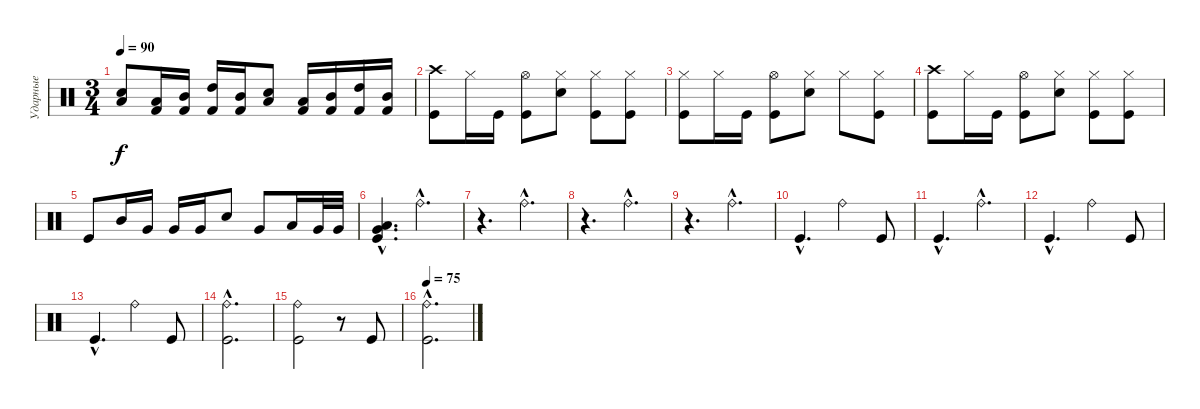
\track ("Ударные" "Ударные") {instrument percussion}
\staff {score}
\articulation defaults
\ts (3 4)
\tempo 90
\clef neutral
\ks c
("Low Floor Tom (hit)" "Electric Snare (hit)").8{dy f} ("Low Tom (hit)" "Kick (hit) 2").16 ("Mid Tom (hit)" "Kick (hit) 2").16 ("High Tom (hit)" "Kick (hit) 2").16 ("Mid Tom (hit)" "Kick (hit) 2").16 ("Low Floor Tom (hit)" "Electric Snare (hit)").8 ("Low Tom (hit)" "Kick (hit) 2").16 ("Mid Tom (hit)" "Kick (hit) 2").16 ("High Tom (hit)" "Kick (hit) 2").16 ("Mid Tom (hit)" "Kick (hit) 2").16 |
("Crash high (hit)" "Kick (hit)").8 "Hi-Hat (closed)".16 "Kick (hit)".16 ("Hi-Hat (open)" "Kick (hit)").8 ("Hi-Hat (closed)" "Electric Snare (hit)").8 ("Hi-Hat (closed)" "Kick (hit)").8 ("Hi-Hat (closed)" "Kick (hit)").8 |
("Hi-Hat (closed)" "Kick (hit)").8 "Hi-Hat (closed)".16 "Kick (hit)".16 ("Hi-Hat (open)" "Kick (hit)").8 ("Hi-Hat (closed)" "Electric Snare (hit)").8 "Hi-Hat (closed)".8 ("Hi-Hat (closed)" "Kick (hit)").8 |
("Crash high (hit)" "Kick (hit)").8 "Hi-Hat (closed)".16 "Kick (hit)".16 ("Hi-Hat (open)" "Kick (hit)").8 ("Hi-Hat (closed)" "Electric Snare (hit)").8 ("Hi-Hat (closed)" "Kick (hit)").8 ("Hi-Hat (closed)" "Kick (hit)").8 |
"Kick (hit)".8 "Mid Tom (hit)".16 "Very Low Tom (hit)".16 "Very Low Tom (hit)".16 "Very Low Tom (hit)".16 "Electric Snare (hit)".8 "Very Low Tom (hit)".8 "Low Tom (hit)".16 "Very Low Tom (hit)".32 "Very Low Tom (hit)".32 |
("Very Low Tom (hit)"{hac} "Low Tom (hit)"{hac} "Kick (hit)"{hac}).4{d} "Ride (bell)"{hac}.4{d} |
r.4{d} "Ride (bell)"{hac}.4{d} |
r.4{d} "Ride (bell)"{hac}.4{d} |
r.4{d} "Ride (bell)"{hac}.4{d} |
"Kick (hit)"{hac}.4{d} "Ride (bell)".4 "Kick (hit)".8 |
"Kick (hit)"{hac}.4{d} "Ride (bell)"{hac}.4{d} |
"Kick (hit)"{hac}.4{d} "Ride (bell)".4 "Kick (hit)".8 |
"Kick (hit)"{hac}.4{d} "Ride (bell)".4 "Kick (hit)".8 |
("Ride (bell)"{hac} "Kick (hit)"{hac}).2{d} |
("Ride (bell)" "Kick (hit)").2 r.8 "Kick (hit)".8 |
\tempo 75
("Ride (bell)"{hac} "Kick (hit)"{hac}).2{d}
